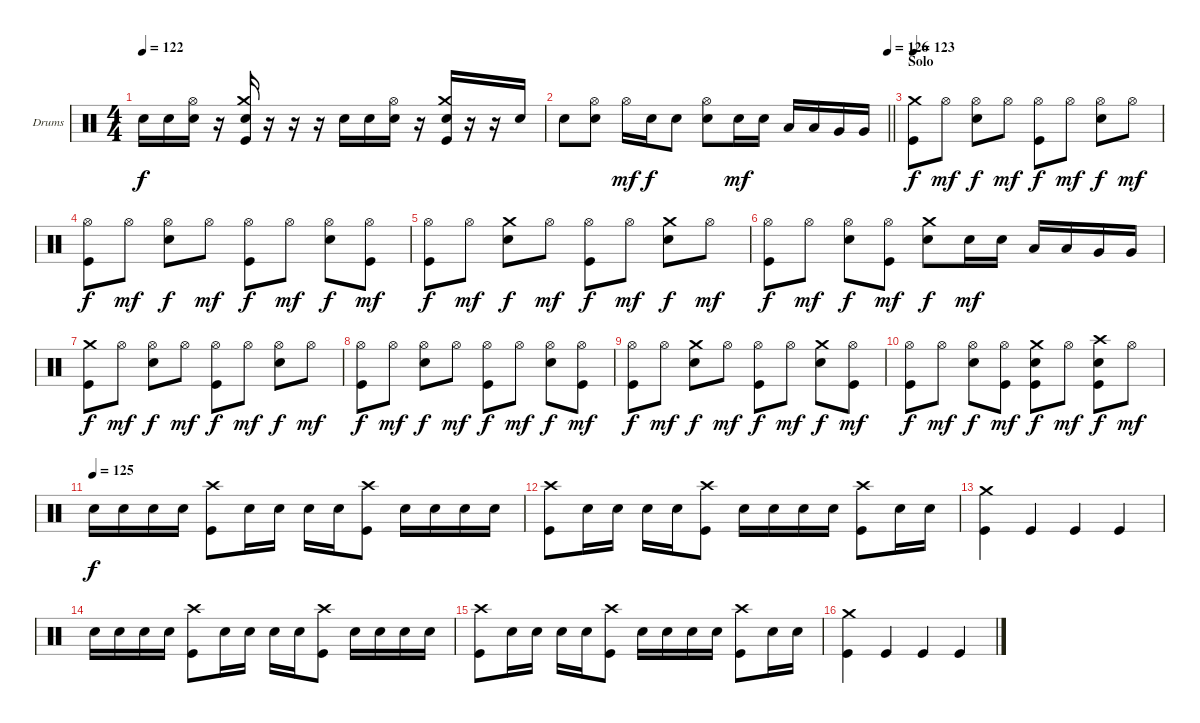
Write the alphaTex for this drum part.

\bracketExtendMode groupsimilarinstruments
\firstSystemTrackNameOrientation horizontal
\otherSystemsTrackNameOrientation horizontal
\track ("Drumkit" "Drums") {instrument percussion}
\staff {score}
\articulation defaults
\ts (4 4)
\tempo 122
\clef neutral
\ks c "Snare (hit) 2".16{dy f} "Snare (hit) 2".16
("Hi-Hat (open)" "Snare (hit) 2").16 r.16 ("Crash medium (hit)" "Snare (hit) 2" "Kick (hit)").16 r.16 r.16 r.16 "Snare (hit) 2".16 "Snare (hit) 2".16 ("Hi-Hat (open)" "Snare (hit) 2").16 r.16 ("Crash medium (hit)" "Snare (hit) 2" "Kick (hit)").16 r.16 r.16 "Snare (hit) 2".16 |
\tempo (126 1)
\barLineRight lightlight "Snare (hit) 2".8
("Hi-Hat (open)" "Snare (hit) 2").8 "Hi-Hat (open)".16{dy mf} "Snare (hit) 2".16{dy f} "Snare (hit) 2".8 ("Hi-Hat (open)" "Snare (hit) 2").8 "Snare (hit) 2".16{dy mf} "Snare (hit) 2".16 "Low Tom (hit)".16 "Low Tom (hit)".16 "Very Low Tom (hit)".16 "Very Low Tom (hit)".16 |
\section ("" "Solo")
\tempo 123
("Crash medium (hit)" "Kick (hit)").8{dy f} "Hi-Hat (open)".8{dy mf} ("Hi-Hat (open)" "Snare (hit) 2").8{dy f} "Hi-Hat (open)".8{dy mf} ("Hi-Hat (open)" "Kick (hit)").8{dy f} "Hi-Hat (open)".8{dy mf} ("Hi-Hat (open)" "Snare (hit) 2").8{dy f} "Hi-Hat (open)".8{dy mf} |
("Hi-Hat (open)" "Kick (hit)").8{dy f} "Hi-Hat (open)".8{dy mf} ("Hi-Hat (open)" "Snare (hit) 2").8{dy f} "Hi-Hat (open)".8{dy mf} ("Hi-Hat (open)" "Kick (hit)").8{dy f} "Hi-Hat (open)".8{dy mf} ("Hi-Hat (open)" "Snare (hit) 2").8{dy f} ("Hi-Hat (open)" "Kick (hit)").8{dy mf} |
("Hi-Hat (open)" "Kick (hit)").8{dy f} "Hi-Hat (open)".8{dy mf} ("Crash medium (hit)" "Snare (hit) 2").8{dy f} "Hi-Hat (open)".8{dy mf} ("Hi-Hat (open)" "Kick (hit)").8{dy f} "Hi-Hat (open)".8{dy mf} ("Crash medium (hit)" "Snare (hit) 2").8{dy f} "Hi-Hat (open)".8{dy mf} |
("Hi-Hat (open)" "Kick (hit)").8{dy f} "Hi-Hat (open)".8{dy mf} ("Hi-Hat (open)" "Snare (hit) 2").8{dy f} ("Hi-Hat (open)" "Kick (hit)").8{dy mf} ("Crash medium (hit)" "Snare (hit) 2").8{dy f} "Snare (hit) 2".16{dy mf} "Snare (hit) 2".16 "Low Tom (hit)".16 "Low Tom (hit)".16 "Very Low Tom (hit)".16 "Very Low Tom (hit)".16 |
("Crash medium (hit)" "Kick (hit)").8{dy f} "Hi-Hat (open)".8{dy mf} ("Hi-Hat (open)" "Snare (hit) 2").8{dy f} "Hi-Hat (open)".8{dy mf} ("Hi-Hat (open)" "Kick (hit)").8{dy f} "Hi-Hat (open)".8{dy mf} ("Hi-Hat (open)" "Snare (hit) 2").8{dy f} "Hi-Hat (open)".8{dy mf} |
("Hi-Hat (open)" "Kick (hit)").8{dy f} "Hi-Hat (open)".8{dy mf} ("Hi-Hat (open)" "Snare (hit) 2").8{dy f} "Hi-Hat (open)".8{dy mf} ("Hi-Hat (open)" "Kick (hit)").8{dy f} "Hi-Hat (open)".8{dy mf} ("Hi-Hat (open)" "Snare (hit) 2").8{dy f} ("Hi-Hat (open)" "Kick (hit)").8{dy mf} |
("Hi-Hat (open)" "Kick (hit)").8{dy f} "Hi-Hat (open)".8{dy mf} ("Crash medium (hit)" "Snare (hit) 2").8{dy f} "Hi-Hat (open)".8{dy mf} ("Hi-Hat (open)" "Kick (hit)").8{dy f} "Hi-Hat (open)".8{dy mf} ("Crash medium (hit)" "Snare (hit) 2").8{dy f} ("Hi-Hat (open)" "Kick (hit)").8{dy mf} |
("Hi-Hat (open)" "Kick (hit)").8{dy f} "Hi-Hat (open)".8{dy mf} ("Hi-Hat (open)" "Snare (hit) 2").8{dy f} ("Hi-Hat (open)" "Kick (hit)").8{dy mf} ("Crash medium (hit)" "Snare (hit) 2" "Kick (hit)").8{dy f} "Hi-Hat (open)".8{dy mf} ("Crash high (hit)" "Snare (hit) 2" "Kick (hit)").8{dy f} "Hi-Hat (open)".8{dy mf} |
\tempo (125)
"Snare (hit) 2".16{dy f} "Snare (hit) 2".16 "Snare (hit) 2".16 "Snare (hit) 2".16 ("Crash high (hit)" "Kick (hit)").8 "Snare (hit) 2".16 "Snare (hit) 2".16 "Snare (hit) 2".16 "Snare (hit) 2".16 ("Crash high (hit)" "Kick (hit)").8 "Snare (hit) 2".16 "Snare (hit) 2".16 "Snare (hit) 2".16 "Snare (hit) 2".16 |
("Crash high (hit)" "Kick (hit)").8 "Snare (hit) 2".16 "Snare (hit) 2".16 "Snare (hit) 2".16 "Snare (hit) 2".16 ("Crash high (hit)" "Kick (hit)").8 "Snare (hit) 2".16 "Snare (hit) 2".16 "Snare (hit) 2".16 "Snare (hit) 2".16 ("Crash high (hit)" "Kick (hit)").8 "Snare (hit) 2".16 "Snare (hit) 2".16 |
("Crash medium (hit)" "Kick (hit)").4 "Kick (hit)".4 "Kick (hit)".4 "Kick (hit)".4 |
"Snare (hit) 2".16 "Snare (hit) 2".16 "Snare (hit) 2".16 "Snare (hit) 2".16 ("Crash high (hit)" "Kick (hit)").8 "Snare (hit) 2".16 "Snare (hit) 2".16 "Snare (hit) 2".16 "Snare (hit) 2".16 ("Crash high (hit)" "Kick (hit)").8 "Snare (hit) 2".16 "Snare (hit) 2".16 "Snare (hit) 2".16 "Snare (hit) 2".16 |
("Crash high (hit)" "Kick (hit)").8 "Snare (hit) 2".16 "Snare (hit) 2".16 "Snare (hit) 2".16 "Snare (hit) 2".16 ("Crash high (hit)" "Kick (hit)").8 "Snare (hit) 2".16 "Snare (hit) 2".16 "Snare (hit) 2".16 "Snare (hit) 2".16 ("Crash high (hit)" "Kick (hit)").8 "Snare (hit) 2".16 "Snare (hit) 2".16 |
("Crash medium (hit)" "Kick (hit)").4 "Kick (hit)".4 "Kick (hit)".4 "Kick (hit)".4
